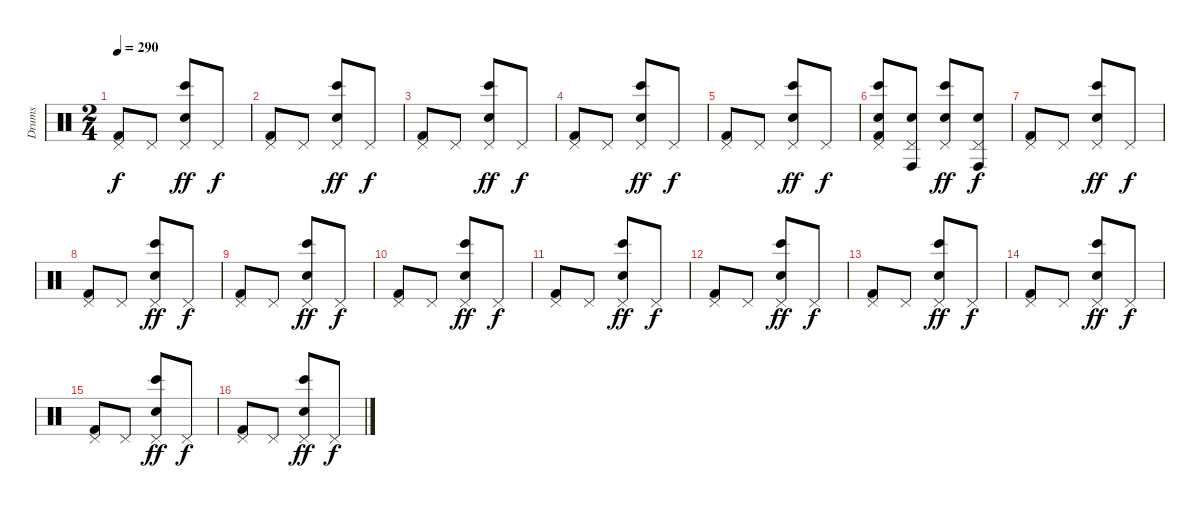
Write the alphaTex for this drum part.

\track ("Drums" "Drums") {instrument percussion}
\staff {score}
\articulation defaults
\ts (2 4)
\tempo 290
\clef neutral
\ks c
("Pedal Hi-Hat (hit)" "Kick (hit) 2").8{dy f} "Pedal Hi-Hat (hit)".8 ("Pedal Hi-Hat (hit)" "Bongo High (hit)" "Electric Snare (hit)").8{dy ff} "Pedal Hi-Hat (hit)".8{dy f} |
("Pedal Hi-Hat (hit)" "Kick (hit) 2").8 "Pedal Hi-Hat (hit)".8 ("Pedal Hi-Hat (hit)" "Bongo High (hit)" "Electric Snare (hit)").8{dy ff} "Pedal Hi-Hat (hit)".8{dy f} |
("Pedal Hi-Hat (hit)" "Kick (hit) 2").8 "Pedal Hi-Hat (hit)".8 ("Pedal Hi-Hat (hit)" "Bongo High (hit)" "Electric Snare (hit)").8{dy ff} "Pedal Hi-Hat (hit)".8{dy f} |
("Pedal Hi-Hat (hit)" "Kick (hit) 2").8 "Pedal Hi-Hat (hit)".8 ("Pedal Hi-Hat (hit)" "Bongo High (hit)" "Electric Snare (hit)").8{dy ff} "Pedal Hi-Hat (hit)".8{dy f} |
("Pedal Hi-Hat (hit)" "Kick (hit) 2").8 "Pedal Hi-Hat (hit)".8 ("Pedal Hi-Hat (hit)" "Bongo High (hit)" "Electric Snare (hit)").8{dy ff} "Pedal Hi-Hat (hit)".8{dy f} |
("Pedal Hi-Hat (hit)" "Bongo High (hit)" "Electric Snare (hit)" "Kick (hit) 2").8 ("Pedal Hi-Hat (hit)" "Conga high (hit)" "Electric Snare (hit)").8 ("Pedal Hi-Hat (hit)" "Bongo High (hit)" "Electric Snare (hit)").8{dy ff} ("Pedal Hi-Hat (hit)" "Conga high (hit)" "Electric Snare (hit)").8{dy f} |
("Pedal Hi-Hat (hit)" "Kick (hit) 2").8 "Pedal Hi-Hat (hit)".8 ("Pedal Hi-Hat (hit)" "Bongo High (hit)" "Electric Snare (hit)").8{dy ff} "Pedal Hi-Hat (hit)".8{dy f} |
("Pedal Hi-Hat (hit)" "Kick (hit) 2").8 "Pedal Hi-Hat (hit)".8 ("Pedal Hi-Hat (hit)" "Bongo High (hit)" "Electric Snare (hit)").8{dy ff} "Pedal Hi-Hat (hit)".8{dy f} |
("Pedal Hi-Hat (hit)" "Kick (hit) 2").8 "Pedal Hi-Hat (hit)".8 ("Pedal Hi-Hat (hit)" "Bongo High (hit)" "Electric Snare (hit)").8{dy ff} "Pedal Hi-Hat (hit)".8{dy f} |
("Pedal Hi-Hat (hit)" "Kick (hit) 2").8 "Pedal Hi-Hat (hit)".8 ("Pedal Hi-Hat (hit)" "Bongo High (hit)" "Electric Snare (hit)").8{dy ff} "Pedal Hi-Hat (hit)".8{dy f} |
("Pedal Hi-Hat (hit)" "Kick (hit) 2").8 "Pedal Hi-Hat (hit)".8 ("Pedal Hi-Hat (hit)" "Bongo High (hit)" "Electric Snare (hit)").8{dy ff} "Pedal Hi-Hat (hit)".8{dy f} |
("Pedal Hi-Hat (hit)" "Kick (hit) 2").8 "Pedal Hi-Hat (hit)".8 ("Pedal Hi-Hat (hit)" "Bongo High (hit)" "Electric Snare (hit)").8{dy ff} "Pedal Hi-Hat (hit)".8{dy f} |
("Pedal Hi-Hat (hit)" "Kick (hit) 2").8 "Pedal Hi-Hat (hit)".8 ("Pedal Hi-Hat (hit)" "Bongo High (hit)" "Electric Snare (hit)").8{dy ff} "Pedal Hi-Hat (hit)".8{dy f} |
("Pedal Hi-Hat (hit)" "Kick (hit) 2").8 "Pedal Hi-Hat (hit)".8 ("Pedal Hi-Hat (hit)" "Bongo High (hit)" "Electric Snare (hit)").8{dy ff} "Pedal Hi-Hat (hit)".8{dy f} |
("Pedal Hi-Hat (hit)" "Kick (hit) 2").8 "Pedal Hi-Hat (hit)".8 ("Pedal Hi-Hat (hit)" "Bongo High (hit)" "Electric Snare (hit)").8{dy ff} "Pedal Hi-Hat (hit)".8{dy f} |
("Pedal Hi-Hat (hit)" "Kick (hit) 2").8 "Pedal Hi-Hat (hit)".8 ("Pedal Hi-Hat (hit)" "Bongo High (hit)" "Electric Snare (hit)").8{dy ff} "Pedal Hi-Hat (hit)".8{dy f}
